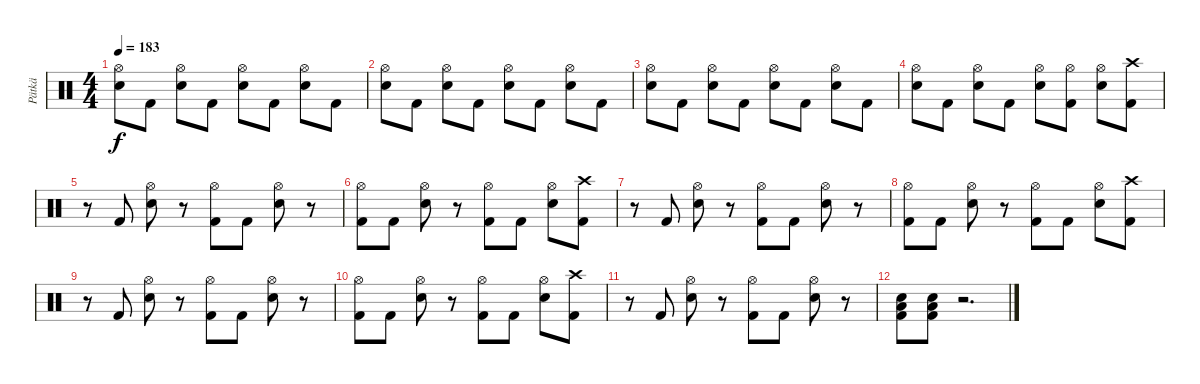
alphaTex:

\track ("Pätkä" "Pätkä") {instrument percussion}
\staff {score}
\articulation defaults
\ts (4 4)
\tempo 183
\clef neutral
\ks c
("Hi-Hat (open)" "Electric Snare (hit)").8{dy f} "Kick (hit) 2".8 ("Hi-Hat (open)" "Electric Snare (hit)").8 "Kick (hit) 2".8 ("Hi-Hat (open)" "Electric Snare (hit)").8 "Kick (hit) 2".8 ("Hi-Hat (open)" "Electric Snare (hit)").8 "Kick (hit) 2".8 |
("Hi-Hat (open)" "Electric Snare (hit)").8 "Kick (hit) 2".8 ("Hi-Hat (open)" "Electric Snare (hit)").8 "Kick (hit) 2".8 ("Hi-Hat (open)" "Electric Snare (hit)").8 "Kick (hit) 2".8 ("Hi-Hat (open)" "Electric Snare (hit)").8 "Kick (hit) 2".8 |
("Hi-Hat (open)" "Electric Snare (hit)").8 "Kick (hit) 2".8 ("Hi-Hat (open)" "Electric Snare (hit)").8 "Kick (hit) 2".8 ("Hi-Hat (open)" "Electric Snare (hit)").8 "Kick (hit) 2".8 ("Hi-Hat (open)" "Electric Snare (hit)").8 "Kick (hit) 2".8 |
("Hi-Hat (open)" "Electric Snare (hit)").8 "Kick (hit) 2".8 ("Hi-Hat (open)" "Electric Snare (hit)").8 "Kick (hit) 2".8 ("Hi-Hat (open)" "Electric Snare (hit)").8 ("Hi-Hat (open)" "Kick (hit) 2").8 ("Hi-Hat (open)" "Electric Snare (hit)").8 ("Crash high (hit)" "Kick (hit) 2").8 |
r.8 "Kick (hit) 2".8 ("Hi-Hat (open)" "Electric Snare (hit)").8 r.8 ("Hi-Hat (open)" "Kick (hit) 2").8 "Kick (hit) 2".8 ("Hi-Hat (open)" "Electric Snare (hit)").8 r.8 |
("Hi-Hat (open)" "Kick (hit) 2").8 "Kick (hit) 2".8 ("Hi-Hat (open)" "Electric Snare (hit)").8 r.8 ("Hi-Hat (open)" "Kick (hit) 2").8 "Kick (hit) 2".8 ("Hi-Hat (open)" "Electric Snare (hit)").8 ("Crash high (hit)" "Kick (hit) 2").8 |
r.8 "Kick (hit) 2".8 ("Hi-Hat (open)" "Electric Snare (hit)").8 r.8 ("Hi-Hat (open)" "Kick (hit) 2").8 "Kick (hit) 2".8 ("Hi-Hat (open)" "Electric Snare (hit)").8 r.8 |
("Hi-Hat (open)" "Kick (hit) 2").8 "Kick (hit) 2".8 ("Hi-Hat (open)" "Electric Snare (hit)").8 r.8 ("Hi-Hat (open)" "Kick (hit) 2").8 "Kick (hit) 2".8 ("Hi-Hat (open)" "Electric Snare (hit)").8 ("Crash high (hit)" "Kick (hit) 2").8 |
r.8 "Kick (hit) 2".8 ("Hi-Hat (open)" "Electric Snare (hit)").8 r.8 ("Hi-Hat (open)" "Kick (hit) 2").8 "Kick (hit) 2".8 ("Hi-Hat (open)" "Electric Snare (hit)").8 r.8 |
("Hi-Hat (open)" "Kick (hit) 2").8 "Kick (hit) 2".8 ("Hi-Hat (open)" "Electric Snare (hit)").8 r.8 ("Hi-Hat (open)" "Kick (hit) 2").8 "Kick (hit) 2".8 ("Hi-Hat (open)" "Electric Snare (hit)").8 ("Crash high (hit)" "Kick (hit) 2").8 |
r.8 "Kick (hit) 2".8 ("Hi-Hat (open)" "Electric Snare (hit)").8 r.8 ("Hi-Hat (open)" "Kick (hit) 2").8 "Kick (hit) 2".8 ("Hi-Hat (open)" "Electric Snare (hit)").8 r.8 |
("Low Floor Tom (hit)" "Electric Snare (hit)" "Kick (hit) 2").8 ("Low Floor Tom (hit)" "Electric Snare (hit)" "Kick (hit) 2").8 r.2{d}
